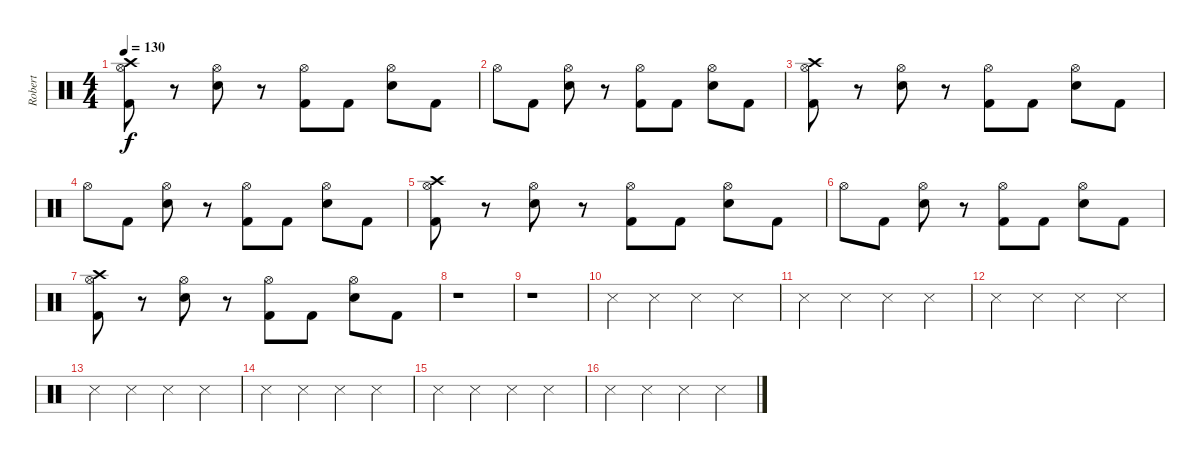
\track ("Robert" "Robert") {instrument percussion}
\staff {score}
\articulation defaults
\ts (4 4)
\tempo 130
\clef neutral
\ks c
("Crash high (hit)" "Hi-Hat (open)" "Kick (hit) 2").8{dy f} r.8 ("Hi-Hat (open)" "Electric Snare (hit)").8 r.8 ("Hi-Hat (open)" "Kick (hit) 2").8 "Kick (hit) 2".8 ("Hi-Hat (open)" "Electric Snare (hit)").8 "Kick (hit) 2".8 |
"Hi-Hat (open)".8 "Kick (hit) 2".8 ("Hi-Hat (open)" "Electric Snare (hit)").8 r.8 ("Hi-Hat (open)" "Kick (hit) 2").8 "Kick (hit) 2".8 ("Hi-Hat (open)" "Electric Snare (hit)").8 "Kick (hit) 2".8 |
("Crash high (hit)" "Hi-Hat (open)" "Kick (hit) 2").8 r.8 ("Hi-Hat (open)" "Electric Snare (hit)").8 r.8 ("Hi-Hat (open)" "Kick (hit) 2").8 "Kick (hit) 2".8 ("Hi-Hat (open)" "Electric Snare (hit)").8 "Kick (hit) 2".8 |
"Hi-Hat (open)".8 "Kick (hit) 2".8 ("Hi-Hat (open)" "Electric Snare (hit)").8 r.8 ("Hi-Hat (open)" "Kick (hit) 2").8 "Kick (hit) 2".8 ("Hi-Hat (open)" "Electric Snare (hit)").8 "Kick (hit) 2".8 |
("Crash high (hit)" "Hi-Hat (open)" "Kick (hit) 2").8 r.8 ("Hi-Hat (open)" "Electric Snare (hit)").8 r.8 ("Hi-Hat (open)" "Kick (hit) 2").8 "Kick (hit) 2".8 ("Hi-Hat (open)" "Electric Snare (hit)").8 "Kick (hit) 2".8 |
"Hi-Hat (open)".8 "Kick (hit) 2".8 ("Hi-Hat (open)" "Electric Snare (hit)").8 r.8 ("Hi-Hat (open)" "Kick (hit) 2").8 "Kick (hit) 2".8 ("Hi-Hat (open)" "Electric Snare (hit)").8 "Kick (hit) 2".8 |
("Crash high (hit)" "Hi-Hat (open)" "Kick (hit) 2").8 r.8 ("Hi-Hat (open)" "Electric Snare (hit)").8 r.8 ("Hi-Hat (open)" "Kick (hit) 2").8 "Kick (hit) 2".8 ("Hi-Hat (open)" "Electric Snare (hit)").8 "Kick (hit) 2".8 |
r.1 |
r.1 |
"Snare (side stick) 3".4 "Snare (side stick) 3".4 "Snare (side stick) 3".4 "Snare (side stick) 3".4 |
"Snare (side stick) 3".4 "Snare (side stick) 3".4 "Snare (side stick) 3".4 "Snare (side stick) 3".4 |
"Snare (side stick) 3".4 "Snare (side stick) 3".4 "Snare (side stick) 3".4 "Snare (side stick) 3".4 |
"Snare (side stick) 3".4 "Snare (side stick) 3".4 "Snare (side stick) 3".4 "Snare (side stick) 3".4 |
"Snare (side stick) 3".4 "Snare (side stick) 3".4 "Snare (side stick) 3".4 "Snare (side stick) 3".4 |
"Snare (side stick) 3".4 "Snare (side stick) 3".4 "Snare (side stick) 3".4 "Snare (side stick) 3".4 |
"Snare (side stick) 3".4 "Snare (side stick) 3".4 "Snare (side stick) 3".4 "Snare (side stick) 3".4
